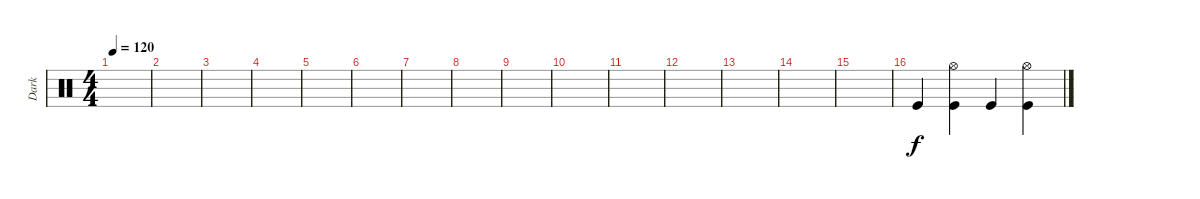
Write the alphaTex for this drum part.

\track ("Dark" "Dark") {instrument percussion}
\staff {score}
\articulation defaults
\ts (4 4)
\tempo 120
\clef neutral
\ks c
|
|
|
|
|
|
|
|
|
|
|
|
|
|
|
"Kick (hit)".4 ("Hi-Hat (open)" "Kick (hit)").4 "Kick (hit)".4 ("Hi-Hat (open)" "Kick (hit)").4
